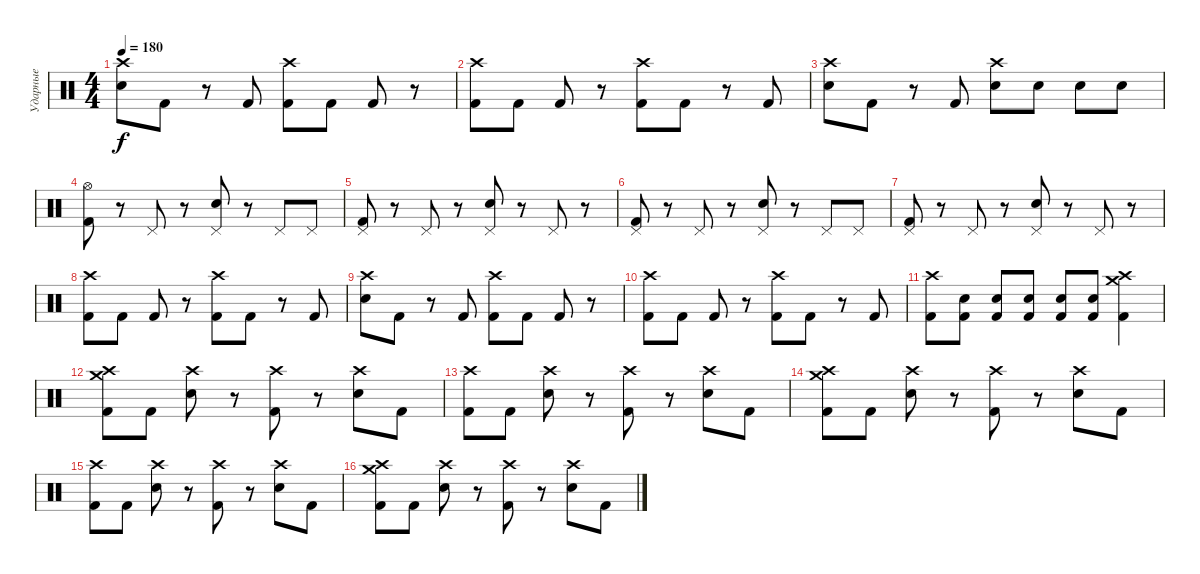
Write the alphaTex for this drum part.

\track ("Ударные" "Ударные") {instrument percussion}
\staff {score}
\articulation defaults
\ts (4 4)
\tempo 180
\clef neutral
\ks c
("Crash high (hit)" "Snare (hit) 2").8{dy f} "Kick (hit) 2".8 r.8 "Kick (hit) 2".8 ("Crash high (hit)" "Kick (hit) 2").8 "Kick (hit) 2".8 "Kick (hit) 2".8 r.8 |
("Crash high (hit)" "Kick (hit) 2").8 "Kick (hit) 2".8 "Kick (hit) 2".8 r.8 ("Crash high (hit)" "Kick (hit) 2").8 "Kick (hit) 2".8 r.8 "Kick (hit) 2".8 |
("Crash high (hit)" "Snare (hit) 2").8 "Kick (hit) 2".8 r.8 "Kick (hit) 2".8 ("Crash high (hit)" "Snare (hit) 2").8 "Snare (hit) 2".8 "Snare (hit) 2".8 "Snare (hit) 2".8 |
("Hi-Hat (open)" "Kick (hit) 2").8 r.8 "Pedal Hi-Hat (hit)".8 r.8 ("Pedal Hi-Hat (hit)" "Snare (hit) 2").8 r.8 "Pedal Hi-Hat (hit)".8 "Pedal Hi-Hat (hit)".8 |
("Pedal Hi-Hat (hit)" "Kick (hit) 2").8 r.8 "Pedal Hi-Hat (hit)".8 r.8 ("Pedal Hi-Hat (hit)" "Snare (hit) 2").8 r.8 "Pedal Hi-Hat (hit)".8 r.8 |
("Pedal Hi-Hat (hit)" "Kick (hit) 2").8 r.8 "Pedal Hi-Hat (hit)".8 r.8 ("Pedal Hi-Hat (hit)" "Snare (hit) 2").8 r.8 "Pedal Hi-Hat (hit)".8 "Pedal Hi-Hat (hit)".8 |
("Pedal Hi-Hat (hit)" "Kick (hit) 2").8 r.8 "Pedal Hi-Hat (hit)".8 r.8 ("Pedal Hi-Hat (hit)" "Snare (hit) 2").8 r.8 "Pedal Hi-Hat (hit)".8 r.8 |
("Crash high (hit)" "Kick (hit) 2").8 "Kick (hit) 2".8 "Kick (hit) 2".8 r.8 ("Crash high (hit)" "Kick (hit) 2").8 "Kick (hit) 2".8 r.8 "Kick (hit) 2".8 |
("Crash high (hit)" "Snare (hit) 2").8 "Kick (hit) 2".8 r.8 "Kick (hit) 2".8 ("Crash high (hit)" "Kick (hit) 2").8 "Kick (hit) 2".8 "Kick (hit) 2".8 r.8 |
("Crash high (hit)" "Kick (hit) 2").8 "Kick (hit) 2".8 "Kick (hit) 2".8 r.8 ("Crash high (hit)" "Kick (hit) 2").8 "Kick (hit) 2".8 r.8 "Kick (hit) 2".8 |
("Crash high (hit)" "Kick (hit) 2").8 ("Snare (hit) 2" "Kick (hit) 2").8 ("Snare (hit) 2" "Kick (hit) 2").8 ("Snare (hit) 2" "Kick (hit) 2").8 ("Snare (hit) 2" "Kick (hit) 2").8 ("Snare (hit) 2" "Kick (hit) 2").8 ("Crash medium (hit)" "Crash high (hit)" "Kick (hit) 2").4 |
("Crash medium (hit)" "Crash high (hit)" "Kick (hit) 2").8 "Kick (hit) 2".8 ("Crash high (hit)" "Snare (hit) 2").8 r.8 ("Crash high (hit)" "Kick (hit) 2").8 r.8 ("Crash high (hit)" "Snare (hit) 2").8 "Kick (hit) 2".8 |
("Crash high (hit)" "Kick (hit) 2").8 "Kick (hit) 2".8 ("Crash high (hit)" "Snare (hit) 2").8 r.8 ("Crash high (hit)" "Kick (hit) 2").8 r.8 ("Crash high (hit)" "Snare (hit) 2").8 "Kick (hit) 2".8 |
("Crash medium (hit)" "Crash high (hit)" "Kick (hit) 2").8 "Kick (hit) 2".8 ("Crash high (hit)" "Snare (hit) 2").8 r.8 ("Crash high (hit)" "Kick (hit) 2").8 r.8 ("Crash high (hit)" "Snare (hit) 2").8 "Kick (hit) 2".8 |
("Crash high (hit)" "Kick (hit) 2").8 "Kick (hit) 2".8 ("Crash high (hit)" "Snare (hit) 2").8 r.8 ("Crash high (hit)" "Kick (hit) 2").8 r.8 ("Crash high (hit)" "Snare (hit) 2").8 "Kick (hit) 2".8 |
("Crash medium (hit)" "Crash high (hit)" "Kick (hit) 2").8 "Kick (hit) 2".8 ("Crash high (hit)" "Snare (hit) 2").8 r.8 ("Crash high (hit)" "Kick (hit) 2").8 r.8 ("Crash high (hit)" "Snare (hit) 2").8 "Kick (hit) 2".8
